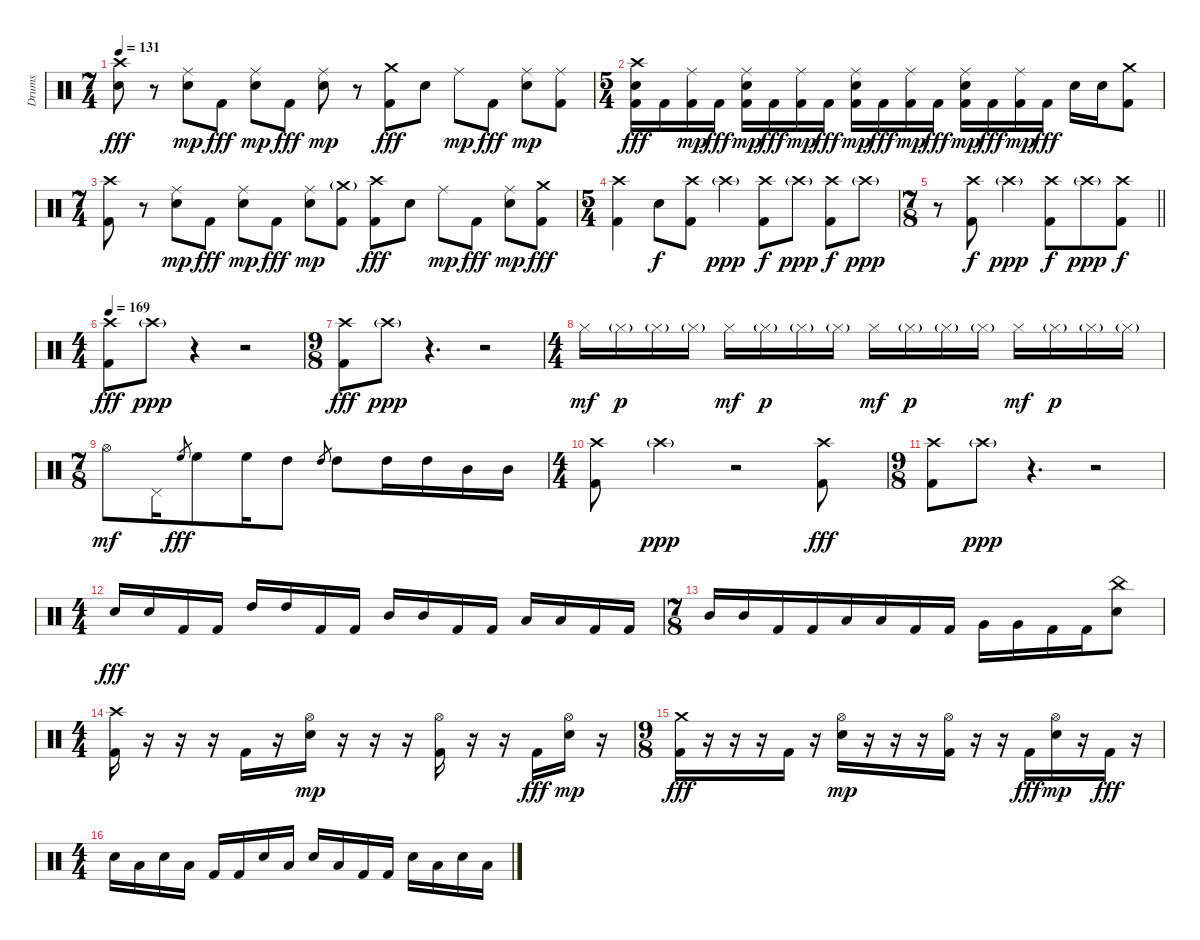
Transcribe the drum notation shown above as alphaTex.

\track ("Drums" "Drums") {instrument percussion}
\staff {score}
\articulation defaults
\ts (7 4)
\tempo 131
\clef neutral
\ks c
("Electric Snare (hit)" "Crash high (hit)").8{dy fff} r.8 ("Electric Snare (hit)" "Ride (middle)").8{dy mp} "Kick (hit) 2".8{dy fff} ("Electric Snare (hit)" "Ride (middle)").8{dy mp} "Kick (hit) 2".8{dy fff} ("Electric Snare (hit)" "Ride (middle)").8{dy mp} r.8 ("Kick (hit) 2" "Crash medium (hit)").8{dy fff} "Electric Snare (hit)".8 "Ride (middle)".8{dy mp} "Kick (hit) 2".8{dy fff} ("Electric Snare (hit)" "Ride (middle)").8{dy mp} ("Kick (hit) 2" "Ride (middle)").8 |
\ts (5 4)
("Kick (hit) 2" "Electric Snare (hit)" "Crash high (hit)").16{dy fff} "Kick (hit) 2".16 ("Kick (hit) 2" "Ride (middle)").16{dy mp} "Kick (hit) 2".16{dy fff} ("Kick (hit) 2" "Electric Snare (hit)" "Ride (middle)").16{dy mp} "Kick (hit) 2".16{dy fff} ("Kick (hit) 2" "Ride (middle)").16{dy mp} "Kick (hit) 2".16{dy fff} ("Kick (hit) 2" "Electric Snare (hit)" "Ride (middle)").16{dy mp} "Kick (hit) 2".16{dy fff} ("Kick (hit) 2" "Ride (middle)").16{dy mp} "Kick (hit) 2".16{dy fff} ("Kick (hit) 2" "Electric Snare (hit)" "Ride (middle)").16{dy mp} "Kick (hit) 2".16{dy fff} ("Kick (hit) 2" "Ride (middle)").16{dy mp} "Kick (hit) 2".16{dy fff} "Electric Snare (hit)".16 "Electric Snare (hit)".16 ("Kick (hit) 2" "Crash medium (hit)").8 |
\ts (7 4)
("Kick (hit) 2" "Crash high (hit)").8 r.8 ("Electric Snare (hit)" "Ride (middle)").8{dy mp} "Kick (hit) 2".8{dy fff} ("Electric Snare (hit)" "Ride (middle)").8{dy mp} "Kick (hit) 2".8{dy fff} ("Electric Snare (hit)" "Ride (middle)").8{dy mp} ("Kick (hit) 2" "Crash medium (hit)"{g}).8 ("Kick (hit) 2" "Crash high (hit)").8{dy fff} "Electric Snare (hit)".8 "Ride (middle)".8{dy mp} "Kick (hit) 2".8{dy fff} ("Electric Snare (hit)" "Ride (middle)").8{dy mp} ("Kick (hit) 2" "Crash medium (hit)").8{dy fff} |
\ts (5 4)
("Kick (hit) 2" "Crash high (hit)").4 "Electric Snare (hit)".8{dy f} ("Kick (hit) 2" "Crash high (hit)").8 "Crash high (hit)"{g}.4{dy ppp} ("Kick (hit) 2" "Crash high (hit)").8{dy f} "Crash high (hit)"{g}.8{dy ppp} ("Kick (hit) 2" "Crash high (hit)").8{dy f} "Crash high (hit)"{g}.8{dy ppp} |
\ts (7 8)
\barLineRight lightlight
r.8 ("Kick (hit) 2" "Crash high (hit)").8{dy f} "Crash high (hit)"{g}.4{dy ppp} ("Kick (hit) 2" "Crash high (hit)").8{dy f} "Crash high (hit)"{g}.8{dy ppp} ("Kick (hit) 2" "Crash high (hit)").8{dy f} |
\ts (4 4)
\tempo 169
("Kick (hit) 2" "Crash high (hit)").8{dy fff} "Crash high (hit)"{g}.8{dy ppp} r.4 r.2 |
\ts (9 8)
("Kick (hit) 2" "Crash high (hit)").8{dy fff} "Crash high (hit)"{g}.8{dy ppp} r.4{d} r.2 |
\ts (4 4)
"Hi-Hat (closed)".16{dy mf} "Hi-Hat (closed)"{g}.16{dy p} "Hi-Hat (closed)"{g}.16 "Hi-Hat (closed)"{g}.16 "Hi-Hat (closed)".16{dy mf} "Hi-Hat (closed)"{g}.16{dy p} "Hi-Hat (closed)"{g}.16 "Hi-Hat (closed)"{g}.16 "Hi-Hat (closed)".16{dy mf} "Hi-Hat (closed)"{g}.16{dy p} "Hi-Hat (closed)"{g}.16 "Hi-Hat (closed)"{g}.16 "Hi-Hat (closed)".16{dy mf} "Hi-Hat (closed)"{g}.16{dy p} "Hi-Hat (closed)"{g}.16 "Hi-Hat (closed)"{g}.16 |
\ts (7 8)
"Hi-Hat (open)".8{dy mf} "Pedal Hi-Hat (hit)".16 "High Floor Tom (hit)".8{gr dy fff} "High Floor Tom (hit)".8 "High Floor Tom (hit)".16 "High Tom (hit)".8 "High Tom (hit)".8{gr} "High Tom (hit)".8 "High Tom (hit)".16 "High Tom (hit)".16 "Mid Tom (hit)".16 "Mid Tom (hit)".16 |
\ts (4 4)
("Kick (hit) 2" "Crash high (hit)").8 "Crash high (hit)"{g}.4{dy ppp} r.2 ("Kick (hit) 2" "Crash high (hit)").8{dy fff} |
\ts (9 8)
("Kick (hit) 2" "Crash high (hit)").8 "Crash high (hit)"{g}.8{dy ppp} r.4{d} r.2 |
\ts (4 4)
"Electric Snare (hit)".16{dy fff} "Electric Snare (hit)".16 "Kick (hit) 2".16 "Kick (hit) 2".16 "High Tom (hit)".16 "High Tom (hit)".16 "Kick (hit) 2".16 "Kick (hit) 2".16 "Mid Tom (hit)".16 "Mid Tom (hit)".16 "Kick (hit) 2".16 "Kick (hit) 2".16 "Low Tom (hit)".16 "Low Tom (hit)".16 "Kick (hit) 2".16 "Kick (hit) 2".16 |
\ts (7 8)
"Mid Tom (hit)".16 "Mid Tom (hit)".16 "Kick (hit) 2".16 "Kick (hit) 2".16 "Low Tom (hit)".16 "Low Tom (hit)".16 "Kick (hit) 2".16 "Kick (hit) 2".16 "Very Low Tom (hit)".16 "Very Low Tom (hit)".16 "Kick (hit) 2".16 "Kick (hit) 2".16 ("Electric Snare (hit)" "China (hit)").8 |
\ts (4 4)
("Kick (hit) 2" "Crash high (hit)").16 r.16 r.16 r.16 "Kick (hit) 2".16 r.16 ("Electric Snare (hit)" "Hi-Hat (open)").16{dy mp} r.16 r.16 r.16 ("Kick (hit) 2" "Hi-Hat (open)").16 r.16 r.16 "Kick (hit) 2".16{dy fff} ("Electric Snare (hit)" "Hi-Hat (open)").16{dy mp} r.16 |
\ts (9 8)
("Kick (hit) 2" "Crash medium (hit)").16{dy fff} r.16 r.16 r.16 "Kick (hit) 2".16 r.16 ("Electric Snare (hit)" "Hi-Hat (open)").16{dy mp} r.16 r.16 r.16 ("Kick (hit) 2" "Hi-Hat (open)").16 r.16 r.16 "Kick (hit) 2".16{dy fff} ("Electric Snare (hit)" "Hi-Hat (open)").16{dy mp} r.16 "Kick (hit) 2".16{dy fff} r.16 |
\ts (4 4)
"Electric Snare (hit)".16 "Low Tom (hit)".16 "Electric Snare (hit)".16 "Low Tom (hit)".16 "Kick (hit) 2".16 "Kick (hit) 2".16 "Electric Snare (hit)".16 "Low Tom (hit)".16 "Electric Snare (hit)".16 "Low Tom (hit)".16 "Kick (hit) 2".16 "Kick (hit) 2".16 "Electric Snare (hit)".16 "Low Tom (hit)".16 "Electric Snare (hit)".16 "Low Tom (hit)".16
